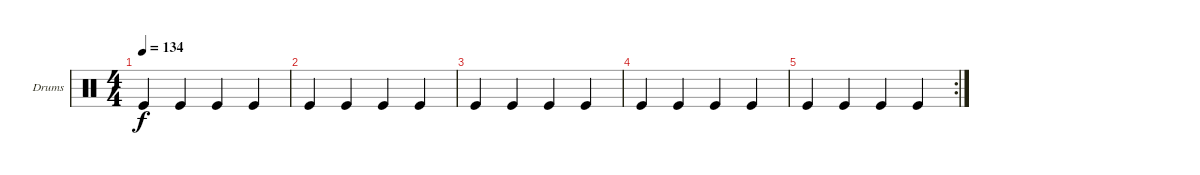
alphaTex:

\defaultSystemsLayout 4
\bracketExtendMode groupsimilarinstruments
\firstSystemTrackNameOrientation horizontal
\otherSystemsTrackNameOrientation horizontal
\track ("Bass Drum" "Drums") {instrument percussion}
\staff {score}
\articulation defaults
\ts (4 4)
\tempo 134
\clef neutral
\ks c "Kick (hit)".4{dy f} "Kick (hit)".4 "Kick (hit)".4 "Kick (hit)".4
|
"Kick (hit)".4 "Kick (hit)".4 "Kick (hit)".4 "Kick (hit)".4 |
"Kick (hit)".4 "Kick (hit)".4 "Kick (hit)".4 "Kick (hit)".4 |
"Kick (hit)".4 "Kick (hit)".4 "Kick (hit)".4 "Kick (hit)".4 |
\rc 2 "Kick (hit)".4 "Kick (hit)".4 "Kick (hit)".4 "Kick (hit)".4
